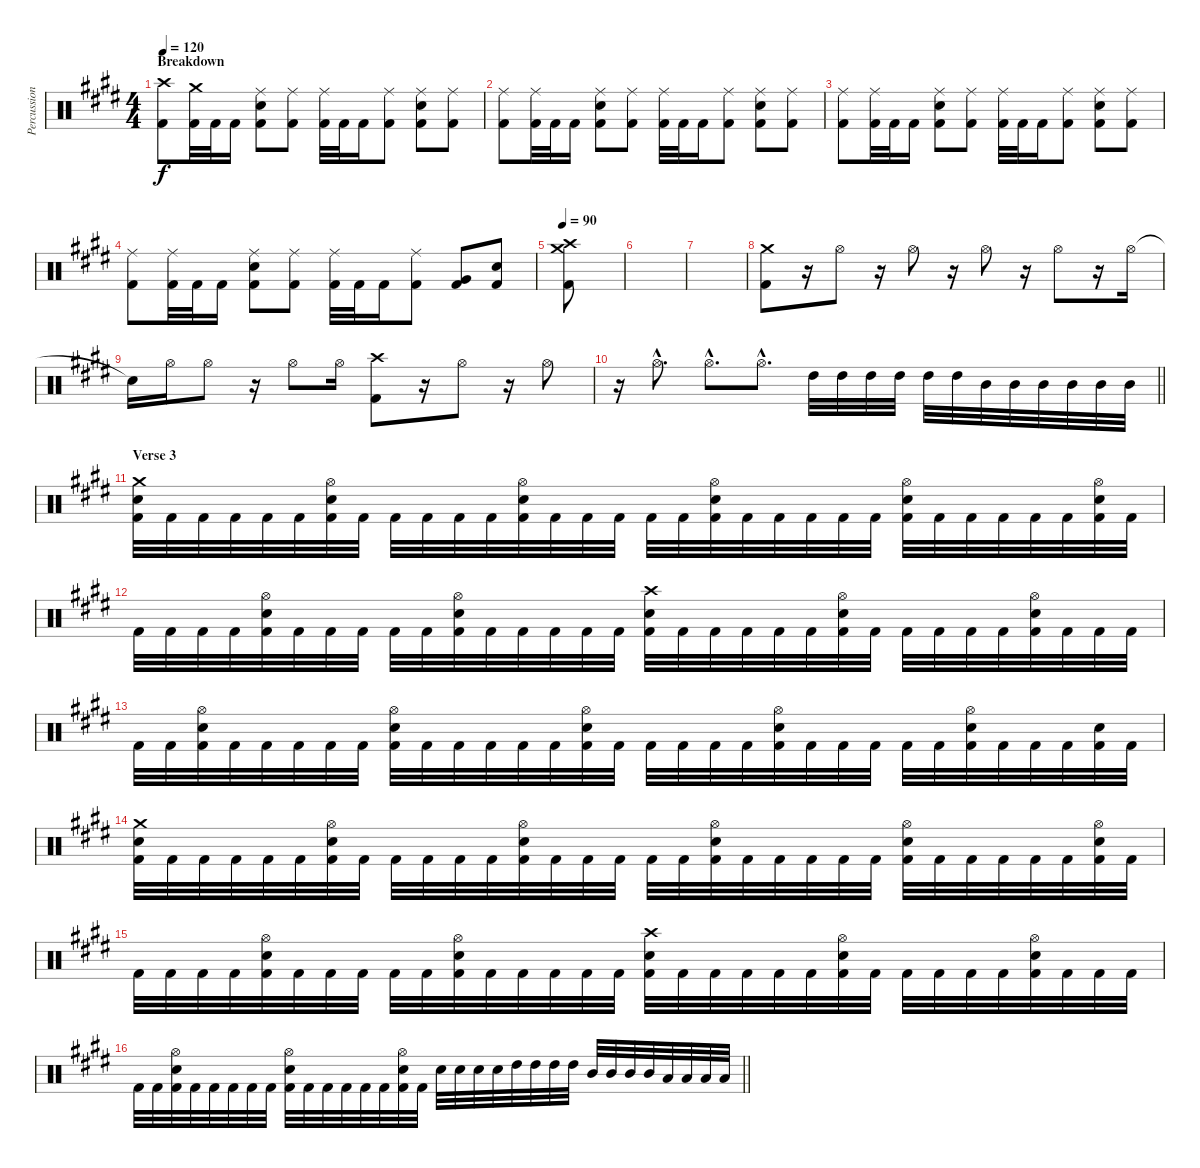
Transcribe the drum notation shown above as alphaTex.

\track ("Percussion" "Percussion") {instrument percussion}
\staff {score}
\articulation defaults
\ts (4 4)
\section ("" "Breakdown")
\tempo 120
\clef neutral
\ks c#minor
("Crash high (hit)" "Kick (hit) 2").8{dy f} ("Crash medium (hit)" "Kick (hit) 2").32 "Kick (hit) 2".32 "Kick (hit) 2".16 ("Ride (middle)" "Snare (hit) 2" "Kick (hit) 2").8 ("Ride (middle)" "Kick (hit) 2").8 ("Ride (middle)" "Kick (hit) 2").32 "Kick (hit) 2".32 "Kick (hit) 2".16 ("Ride (middle)" "Kick (hit) 2").8 ("Ride (middle)" "Snare (hit) 2" "Kick (hit) 2").8 ("Ride (middle)" "Kick (hit) 2").8 |
("Ride (middle)" "Kick (hit) 2").8 ("Ride (middle)" "Kick (hit) 2").32 "Kick (hit) 2".32 "Kick (hit) 2".16 ("Ride (middle)" "Snare (hit) 2" "Kick (hit) 2").8 ("Ride (middle)" "Kick (hit) 2").8 ("Ride (middle)" "Kick (hit) 2").32 "Kick (hit) 2".32 "Kick (hit) 2".16 ("Ride (middle)" "Kick (hit) 2").8 ("Ride (middle)" "Snare (hit) 2" "Kick (hit) 2").8 ("Ride (middle)" "Kick (hit) 2").8 |
("Ride (middle)" "Kick (hit) 2").8 ("Ride (middle)" "Kick (hit) 2").32 "Kick (hit) 2".32 "Kick (hit) 2".16 ("Ride (middle)" "Snare (hit) 2" "Kick (hit) 2").8 ("Ride (middle)" "Kick (hit) 2").8 ("Ride (middle)" "Kick (hit) 2").32 "Kick (hit) 2".32 "Kick (hit) 2".16 ("Ride (middle)" "Kick (hit) 2").8 ("Ride (middle)" "Snare (hit) 2" "Kick (hit) 2").8 ("Ride (middle)" "Kick (hit) 2").8 |
("Ride (middle)" "Kick (hit) 2").8 ("Ride (middle)" "Kick (hit) 2").32 "Kick (hit) 2".32 "Kick (hit) 2".16 ("Ride (middle)" "Snare (hit) 2" "Kick (hit) 2").8 ("Ride (middle)" "Kick (hit) 2").8 ("Ride (middle)" "Kick (hit) 2").32 "Kick (hit) 2".32 "Kick (hit) 2".16 ("Ride (middle)" "Kick (hit) 2").8 ("Very Low Tom (hit)" "Kick (hit) 2").8 ("Snare (hit) 2" "Kick (hit) 2").8 |
\tempo 90
("Crash medium (hit)" "Crash high (hit)" "Kick (hit) 2").8 |
|
|
("Crash medium (hit)" "Kick (hit) 2").8 r.16 "Hi-Hat (open)".8 r.16 "Hi-Hat (open)".8 r.16 "Hi-Hat (open)".8 r.16 "Hi-Hat (open)".8 r.16 "Hi-Hat (open)".16 |
"Snare (hit)"{t}.16 "Hi-Hat (open)".16 "Hi-Hat (open)".8 r.16 "Hi-Hat (open)".8 "Hi-Hat (open)".16 ("Crash high (hit)" "Kick (hit) 2").8 r.16 "Hi-Hat (open)".8 r.16 "Hi-Hat (open)".8 |
\barLineRight lightlight
r.16 "Hi-Hat (open)"{hac}.8{d} "Hi-Hat (open)"{hac}.8{d} "Hi-Hat (open)"{hac}.8{d} "High Tom (hit)".32 "High Tom (hit)".32 "High Tom (hit)".32 "High Tom (hit)".32 "High Tom (hit)".32 "High Tom (hit)".32 "Mid Tom (hit)".32 "Mid Tom (hit)".32 "Mid Tom (hit)".32 "Mid Tom (hit)".32 "Mid Tom (hit)".32 "Mid Tom (hit)".32 |
\section ("" "Verse 3")
("Crash medium (hit)" "Snare (hit) 2" "Kick (hit) 2").32 "Kick (hit) 2".32 "Kick (hit) 2".32 "Kick (hit) 2".32 "Kick (hit) 2".32 "Kick (hit) 2".32 ("Hi-Hat (open)" "Snare (hit) 2" "Kick (hit) 2").32 "Kick (hit) 2".32 "Kick (hit) 2".32 "Kick (hit) 2".32 "Kick (hit) 2".32 "Kick (hit) 2".32 ("Hi-Hat (open)" "Snare (hit) 2" "Kick (hit) 2").32 "Kick (hit) 2".32 "Kick (hit) 2".32 "Kick (hit) 2".32 "Kick (hit) 2".32 "Kick (hit) 2".32 ("Hi-Hat (open)" "Snare (hit) 2" "Kick (hit) 2").32 "Kick (hit) 2".32 "Kick (hit) 2".32 "Kick (hit) 2".32 "Kick (hit) 2".32 "Kick (hit) 2".32 ("Hi-Hat (open)" "Snare (hit) 2" "Kick (hit) 2").32 "Kick (hit) 2".32 "Kick (hit) 2".32 "Kick (hit) 2".32 "Kick (hit) 2".32 "Kick (hit) 2".32 ("Hi-Hat (open)" "Snare (hit) 2" "Kick (hit) 2").32 "Kick (hit) 2".32 |
"Kick (hit) 2".32 "Kick (hit) 2".32 "Kick (hit) 2".32 "Kick (hit) 2".32 ("Hi-Hat (open)" "Snare (hit) 2" "Kick (hit) 2").32 "Kick (hit) 2".32 "Kick (hit) 2".32 "Kick (hit) 2".32 "Kick (hit) 2".32 "Kick (hit) 2".32 ("Hi-Hat (open)" "Snare (hit) 2" "Kick (hit) 2").32 "Kick (hit) 2".32 "Kick (hit) 2".32 "Kick (hit) 2".32 "Kick (hit) 2".32 "Kick (hit) 2".32 ("Crash high (hit)" "Snare (hit) 2" "Kick (hit) 2").32 "Kick (hit) 2".32 "Kick (hit) 2".32 "Kick (hit) 2".32 "Kick (hit) 2".32 "Kick (hit) 2".32 ("Hi-Hat (open)" "Snare (hit) 2" "Kick (hit) 2").32 "Kick (hit) 2".32 "Kick (hit) 2".32 "Kick (hit) 2".32 "Kick (hit) 2".32 "Kick (hit) 2".32 ("Hi-Hat (open)" "Snare (hit) 2" "Kick (hit) 2").32 "Kick (hit) 2".32 "Kick (hit) 2".32 "Kick (hit) 2".32 |
"Kick (hit) 2".32 "Kick (hit) 2".32 ("Hi-Hat (open)" "Snare (hit) 2" "Kick (hit) 2").32 "Kick (hit) 2".32 "Kick (hit) 2".32 "Kick (hit) 2".32 "Kick (hit) 2".32 "Kick (hit) 2".32 ("Hi-Hat (open)" "Snare (hit) 2" "Kick (hit) 2").32 "Kick (hit) 2".32 "Kick (hit) 2".32 "Kick (hit) 2".32 "Kick (hit) 2".32 "Kick (hit) 2".32 ("Hi-Hat (open)" "Snare (hit) 2" "Kick (hit) 2").32 "Kick (hit) 2".32 "Kick (hit) 2".32 "Kick (hit) 2".32 "Kick (hit) 2".32 "Kick (hit) 2".32 ("Hi-Hat (open)" "Snare (hit) 2" "Kick (hit) 2").32 "Kick (hit) 2".32 "Kick (hit) 2".32 "Kick (hit) 2".32 "Kick (hit) 2".32 "Kick (hit) 2".32 ("Hi-Hat (open)" "Snare (hit) 2" "Kick (hit) 2").32 "Kick (hit) 2".32 "Kick (hit) 2".32 "Kick (hit) 2".32 ("Snare (hit) 2" "Kick (hit) 2").32 "Kick (hit) 2".32 |
("Crash medium (hit)" "Snare (hit) 2" "Kick (hit) 2").32 "Kick (hit) 2".32 "Kick (hit) 2".32 "Kick (hit) 2".32 "Kick (hit) 2".32 "Kick (hit) 2".32 ("Hi-Hat (open)" "Snare (hit) 2" "Kick (hit) 2").32 "Kick (hit) 2".32 "Kick (hit) 2".32 "Kick (hit) 2".32 "Kick (hit) 2".32 "Kick (hit) 2".32 ("Hi-Hat (open)" "Snare (hit) 2" "Kick (hit) 2").32 "Kick (hit) 2".32 "Kick (hit) 2".32 "Kick (hit) 2".32 "Kick (hit) 2".32 "Kick (hit) 2".32 ("Hi-Hat (open)" "Snare (hit) 2" "Kick (hit) 2").32 "Kick (hit) 2".32 "Kick (hit) 2".32 "Kick (hit) 2".32 "Kick (hit) 2".32 "Kick (hit) 2".32 ("Hi-Hat (open)" "Snare (hit) 2" "Kick (hit) 2").32 "Kick (hit) 2".32 "Kick (hit) 2".32 "Kick (hit) 2".32 "Kick (hit) 2".32 "Kick (hit) 2".32 ("Hi-Hat (open)" "Snare (hit) 2" "Kick (hit) 2").32 "Kick (hit) 2".32 |
"Kick (hit) 2".32 "Kick (hit) 2".32 "Kick (hit) 2".32 "Kick (hit) 2".32 ("Hi-Hat (open)" "Snare (hit) 2" "Kick (hit) 2").32 "Kick (hit) 2".32 "Kick (hit) 2".32 "Kick (hit) 2".32 "Kick (hit) 2".32 "Kick (hit) 2".32 ("Hi-Hat (open)" "Snare (hit) 2" "Kick (hit) 2").32 "Kick (hit) 2".32 "Kick (hit) 2".32 "Kick (hit) 2".32 "Kick (hit) 2".32 "Kick (hit) 2".32 ("Crash high (hit)" "Snare (hit) 2" "Kick (hit) 2").32 "Kick (hit) 2".32 "Kick (hit) 2".32 "Kick (hit) 2".32 "Kick (hit) 2".32 "Kick (hit) 2".32 ("Hi-Hat (open)" "Snare (hit) 2" "Kick (hit) 2").32 "Kick (hit) 2".32 "Kick (hit) 2".32 "Kick (hit) 2".32 "Kick (hit) 2".32 "Kick (hit) 2".32 ("Hi-Hat (open)" "Snare (hit) 2" "Kick (hit) 2").32 "Kick (hit) 2".32 "Kick (hit) 2".32 "Kick (hit) 2".32 |
\barLineRight lightlight "Kick (hit) 2".32 "Kick (hit) 2".32
("Hi-Hat (open)" "Snare (hit) 2" "Kick (hit) 2").32 "Kick (hit) 2".32 "Kick (hit) 2".32 "Kick (hit) 2".32 "Kick (hit) 2".32 "Kick (hit) 2".32 ("Hi-Hat (open)" "Snare (hit) 2" "Kick (hit) 2").32 "Kick (hit) 2".32 "Kick (hit) 2".32 "Kick (hit) 2".32 "Kick (hit) 2".32 "Kick (hit) 2".32 ("Hi-Hat (open)" "Snare (hit) 2" "Kick (hit) 2").32 "Kick (hit) 2".32 "Snare (hit) 2".32 "Snare (hit) 2".32 "Snare (hit) 2".32 "Snare (hit) 2".32 "High Tom (hit)".32 "High Tom (hit)".32 "High Tom (hit)".32 "High Tom (hit)".32 "Mid Tom (hit)".32 "Mid Tom (hit)".32 "Mid Tom (hit)".32 "Mid Tom (hit)".32 "Low Tom (hit)".32 "Low Tom (hit)".32 "Low Tom (hit)".32 "Low Tom (hit)".32
